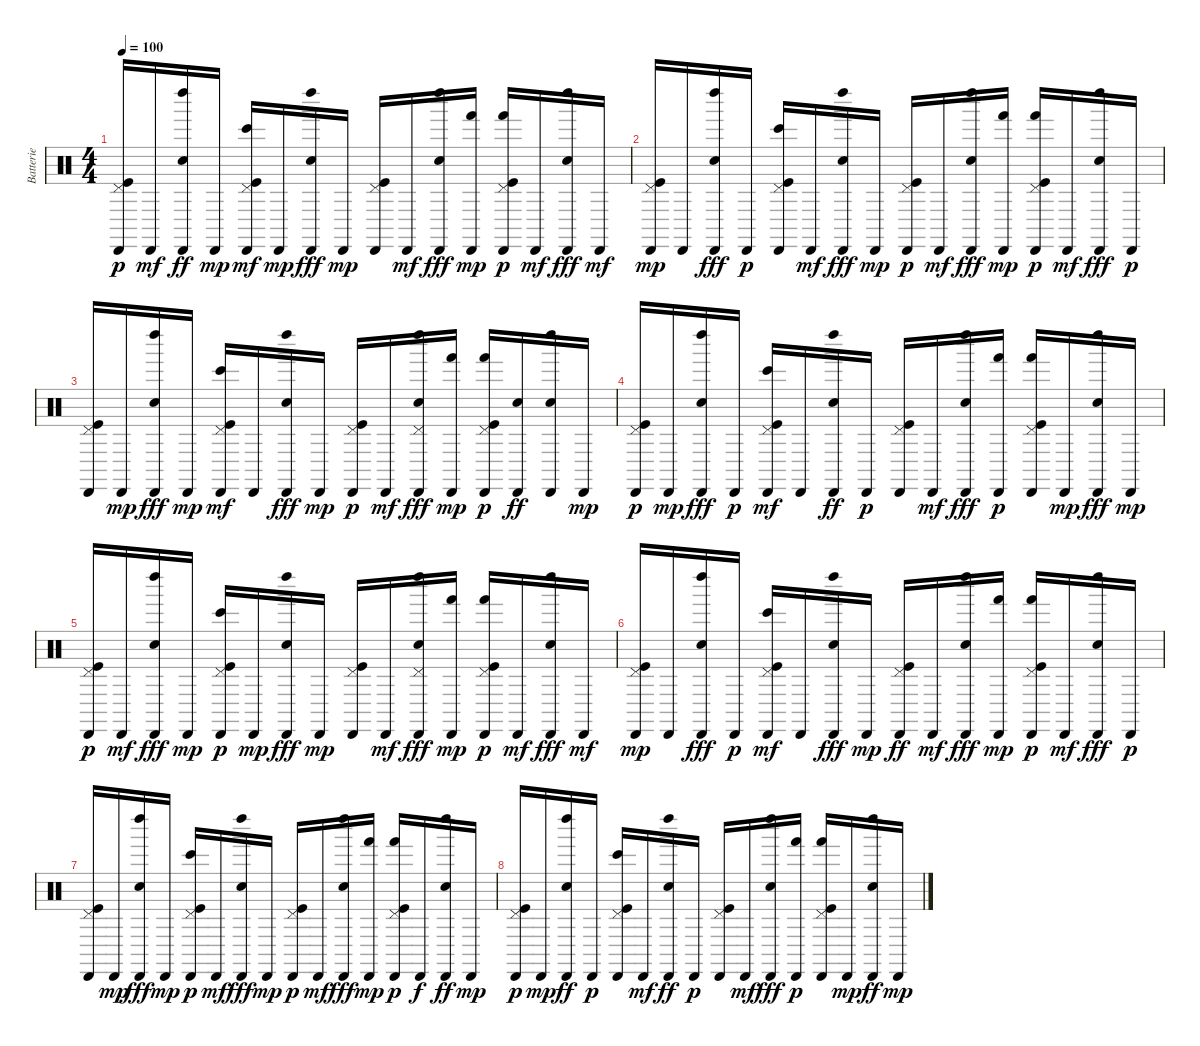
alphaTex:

\track ("Batterie" "Batterie") {instrument percussion}
\staff {score}
\articulation defaults
\ts (4 4)
\tempo 100
\clef neutral
\ks c
("Kick (hit)" "Pedal Hi-Hat (hit)" "Cabasa (hit)").16{dy p} "Cabasa (hit)".16{dy mf} ("Cabasa (hit)" "Left Maraca (hit)" "Hand Clap (hit)").16{dy ff} "Cabasa (hit)".16{dy mp} ("Bongo High (hit)" "Cabasa (hit)" "Kick (hit)" "Pedal Hi-Hat (hit)").16{dy mf} "Cabasa (hit)".16{dy mp} ("Cabasa (hit)" "Hand Clap (hit)" "Left Maraca (hit)").16{dy fff} "Cabasa (hit)".16{dy mp} ("Pedal Hi-Hat (hit)" "Kick (hit)" "Cabasa (hit)").16 "Cabasa (hit)".16{dy mf} ("Cabasa (hit)" "Hand Clap (hit)" "Left Maraca (hit)").16{dy fff} ("Hand (hit)" "Cabasa (hit)").16{dy mp} ("Pedal Hi-Hat (hit)" "Kick (hit)" "Hand (hit)" "Cabasa (hit)").16{dy p} "Cabasa (hit)".16{dy mf} ("Cabasa (hit)" "Hand Clap (hit)" "Left Maraca (hit)").16{dy fff} "Cabasa (hit)".16{dy mf} |
("Pedal Hi-Hat (hit)" "Kick (hit)" "Cabasa (hit)").16{dy mp} "Cabasa (hit)".16 ("Hand Clap (hit)" "Cabasa (hit)" "Left Maraca (hit)").16{dy fff} "Cabasa (hit)".16{dy p} ("Pedal Hi-Hat (hit)" "Cabasa (hit)" "Kick (hit)" "Bongo High (hit)").16 "Cabasa (hit)".16{dy mf} ("Hand Clap (hit)" "Left Maraca (hit)" "Cabasa (hit)").16{dy fff} "Cabasa (hit)".16{dy mp} ("Pedal Hi-Hat (hit)" "Cabasa (hit)" "Kick (hit)").16{dy p} "Cabasa (hit)".16{dy mf} ("Hand Clap (hit)" "Left Maraca (hit)" "Cabasa (hit)").16{dy fff} ("Hand (hit)" "Cabasa (hit)").16{dy mp} ("Hand (hit)" "Pedal Hi-Hat (hit)" "Cabasa (hit)" "Kick (hit)").16{dy p} "Cabasa (hit)".16{dy mf} ("Left Maraca (hit)" "Hand Clap (hit)" "Cabasa (hit)").16{dy fff} "Cabasa (hit)".16{dy p} |
("Pedal Hi-Hat (hit)" "Cabasa (hit)" "Kick (hit)").16 "Cabasa (hit)".16{dy mp} ("Hand Clap (hit)" "Left Maraca (hit)" "Cabasa (hit)").16{dy fff} "Cabasa (hit)".16{dy mp} ("Pedal Hi-Hat (hit)" "Kick (hit)" "Cabasa (hit)" "Bongo High (hit)").16{dy mf} "Cabasa (hit)".16 ("Hand Clap (hit)" "Cabasa (hit)" "Left Maraca (hit)").16{dy fff} "Cabasa (hit)".16{dy mp} ("Pedal Hi-Hat (hit)" "Kick (hit)" "Cabasa (hit)").16{dy p} "Cabasa (hit)".16{dy mf} ("Hand Clap (hit)" "Pedal Hi-Hat (hit)" "Cabasa (hit)" "Left Maraca (hit)").16{dy fff} ("Hand (hit)" "Cabasa (hit)").16{dy mp} ("Kick (hit)" "Hand (hit)" "Pedal Hi-Hat (hit)" "Cabasa (hit)").16{dy p} ("Cabasa (hit)" "Hand Clap (hit)").16{dy ff} ("Hand Clap (hit)" "Left Maraca (hit)" "Cabasa (hit)").16 "Cabasa (hit)".16{dy mp} |
("Pedal Hi-Hat (hit)" "Kick (hit)" "Cabasa (hit)").16{dy p} "Cabasa (hit)".16{dy mp} ("Hand Clap (hit)" "Cabasa (hit)" "Left Maraca (hit)").16{dy fff} "Cabasa (hit)".16{dy p} ("Kick (hit)" "Cabasa (hit)" "Pedal Hi-Hat (hit)" "Bongo High (hit)").16{dy mf} "Cabasa (hit)".16 ("Cabasa (hit)" "Left Maraca (hit)" "Hand Clap (hit)").16{dy ff} "Cabasa (hit)".16{dy p} ("Pedal Hi-Hat (hit)" "Kick (hit)" "Cabasa (hit)").16 "Cabasa (hit)".16{dy mf} ("Cabasa (hit)" "Left Maraca (hit)" "Hand Clap (hit)").16{dy fff} ("Hand (hit)" "Cabasa (hit)").16{dy p} ("Kick (hit)" "Hand (hit)" "Pedal Hi-Hat (hit)" "Cabasa (hit)").16 "Cabasa (hit)".16{dy mp} ("Cabasa (hit)" "Left Maraca (hit)" "Hand Clap (hit)").16{dy fff} "Cabasa (hit)".16{dy mp} |
("Kick (hit)" "Pedal Hi-Hat (hit)" "Cabasa (hit)").16{dy p} "Cabasa (hit)".16{dy mf} ("Cabasa (hit)" "Left Maraca (hit)" "Hand Clap (hit)").16{dy fff} "Cabasa (hit)".16{dy mp} ("Kick (hit)" "Pedal Hi-Hat (hit)" "Cabasa (hit)" "Bongo High (hit)").16{dy p} "Cabasa (hit)".16{dy mp} ("Hand Clap (hit)" "Left Maraca (hit)" "Cabasa (hit)").16{dy fff} "Cabasa (hit)".16{dy mp} ("Kick (hit)" "Pedal Hi-Hat (hit)" "Cabasa (hit)").16 "Cabasa (hit)".16{dy mf} ("Left Maraca (hit)" "Pedal Hi-Hat (hit)" "Hand Clap (hit)" "Cabasa (hit)").16{dy fff} ("Cabasa (hit)" "Hand (hit)").16{dy mp} ("Kick (hit)" "Hand (hit)" "Pedal Hi-Hat (hit)" "Cabasa (hit)").16{dy p} "Cabasa (hit)".16{dy mf} ("Left Maraca (hit)" "Cabasa (hit)" "Hand Clap (hit)").16{dy fff} "Cabasa (hit)".16{dy mf} |
("Kick (hit)" "Pedal Hi-Hat (hit)" "Cabasa (hit)").16{dy mp} "Cabasa (hit)".16 ("Hand Clap (hit)" "Cabasa (hit)" "Left Maraca (hit)").16{dy fff} "Cabasa (hit)".16{dy p} ("Kick (hit)" "Cabasa (hit)" "Bongo High (hit)" "Pedal Hi-Hat (hit)").16{dy mf} "Cabasa (hit)".16 ("Hand Clap (hit)" "Cabasa (hit)" "Left Maraca (hit)").16{dy fff} "Cabasa (hit)".16{dy mp} ("Kick (hit)" "Cabasa (hit)" "Pedal Hi-Hat (hit)").16{dy ff} "Cabasa (hit)".16{dy mf} ("Hand Clap (hit)" "Left Maraca (hit)" "Cabasa (hit)").16{dy fff} ("Hand (hit)" "Cabasa (hit)").16{dy mp} ("Kick (hit)" "Pedal Hi-Hat (hit)" "Hand (hit)" "Cabasa (hit)").16{dy p} "Cabasa (hit)".16{dy mf} ("Hand Clap (hit)" "Left Maraca (hit)" "Cabasa (hit)").16{dy fff} "Cabasa (hit)".16{dy p} |
("Kick (hit)" "Pedal Hi-Hat (hit)" "Cabasa (hit)").16 "Cabasa (hit)".16{dy mp} ("Hand Clap (hit)" "Left Maraca (hit)" "Cabasa (hit)").16{dy fff} "Cabasa (hit)".16{dy mp} ("Kick (hit)" "Bongo High (hit)" "Pedal Hi-Hat (hit)" "Cabasa (hit)").16{dy p} "Cabasa (hit)".16{dy mf} ("Left Maraca (hit)" "Cabasa (hit)" "Hand Clap (hit)").16{dy fff} "Cabasa (hit)".16{dy mp} ("Kick (hit)" "Pedal Hi-Hat (hit)" "Cabasa (hit)").16{dy p} "Cabasa (hit)".16{dy mf} ("Left Maraca (hit)" "Hand Clap (hit)" "Cabasa (hit)").16{dy fff} ("Hand (hit)" "Cabasa (hit)").16{dy mp} ("Kick (hit)" "Pedal Hi-Hat (hit)" "Hand (hit)" "Cabasa (hit)").16{dy p} "Cabasa (hit)".16{dy f} ("Hand Clap (hit)" "Left Maraca (hit)" "Cabasa (hit)").16{dy ff} "Cabasa (hit)".16{dy mp} |
("Kick (hit)" "Pedal Hi-Hat (hit)" "Cabasa (hit)").16{dy p} "Cabasa (hit)".16{dy mp} ("Left Maraca (hit)" "Cabasa (hit)" "Hand Clap (hit)").16{dy ff} "Cabasa (hit)".16{dy p} ("Kick (hit)" "Pedal Hi-Hat (hit)" "Bongo High (hit)" "Cabasa (hit)").16 "Cabasa (hit)".16{dy mf} ("Left Maraca (hit)" "Cabasa (hit)" "Hand Clap (hit)").16{dy ff} "Cabasa (hit)".16{dy p} ("Kick (hit)" "Pedal Hi-Hat (hit)" "Cabasa (hit)").16 "Cabasa (hit)".16{dy mf} ("Left Maraca (hit)" "Hand Clap (hit)" "Cabasa (hit)").16{dy fff} ("Hand (hit)" "Cabasa (hit)").16{dy p} ("Kick (hit)" "Pedal Hi-Hat (hit)" "Hand (hit)" "Cabasa (hit)").16 "Cabasa (hit)".16{dy mp} ("Cabasa (hit)" "Left Maraca (hit)" "Hand Clap (hit)").16{dy ff} "Cabasa (hit)".16{dy mp}
